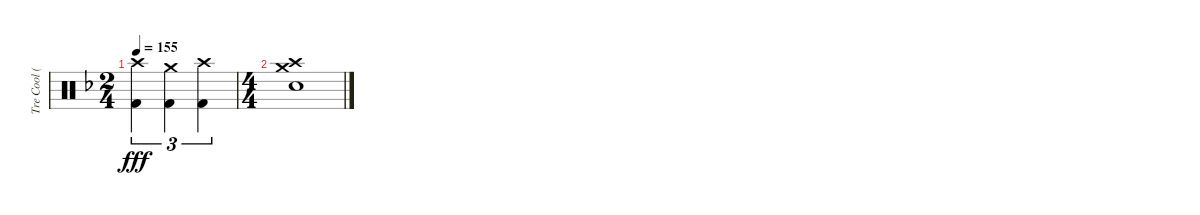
\track ("Tre Cool (Drums)" "Tre Cool (") {instrument percussion}
\staff {score}
\articulation defaults
\ts (2 4)
\tempo 155
\clef neutral
\ks f
("Crash high (hit)" "Kick (hit) 2").4{tu (3 2) dy fff} ("Crash medium (hit)" "Kick (hit) 2").4{tu (3 2)} ("Crash high (hit)" "Kick (hit) 2").4{tu (3 2)} |
\ts (4 4)
("Crash medium (hit)" "Crash high (hit)" "Electric Snare (hit)").1
